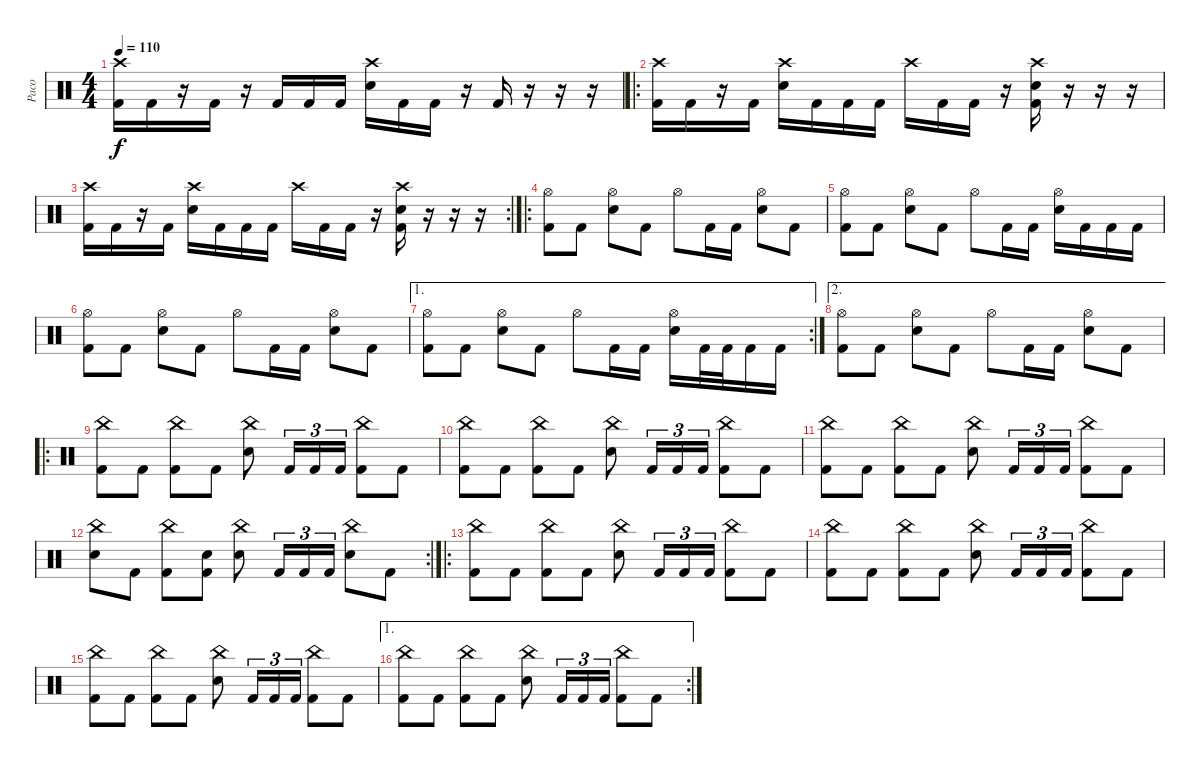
\track ("Paco" "Paco") {instrument percussion}
\staff {score}
\articulation defaults
\ts (4 4)
\tempo 110
\clef neutral
\ks c
("Crash high (hit)" "Kick (hit) 2").16{dy f} "Kick (hit) 2".16 r.16 "Kick (hit) 2".16 r.16 "Kick (hit) 2".16 "Kick (hit) 2".16 "Kick (hit) 2".16 ("Crash high (hit)" "Electric Snare (hit)").16 "Kick (hit) 2".16 "Kick (hit) 2".16 r.16 "Kick (hit) 2".16 r.16 r.16 r.16 |
\ro
("Crash high (hit)" "Kick (hit) 2").16 "Kick (hit) 2".16 r.16 "Kick (hit) 2".16 ("Crash high (hit)" "Electric Snare (hit)").16 "Kick (hit) 2".16 "Kick (hit) 2".16 "Kick (hit) 2".16 "Crash high (hit)".16 "Kick (hit) 2".16 "Kick (hit) 2".16 r.16 ("Crash high (hit)" "Electric Snare (hit)" "Kick (hit) 2").16 r.16 r.16 r.16 |
\rc 2
("Crash high (hit)" "Kick (hit) 2").16 "Kick (hit) 2".16 r.16 "Kick (hit) 2".16 ("Crash high (hit)" "Electric Snare (hit)").16 "Kick (hit) 2".16 "Kick (hit) 2".16 "Kick (hit) 2".16 "Crash high (hit)".16 "Kick (hit) 2".16 "Kick (hit) 2".16 r.16 ("Crash high (hit)" "Electric Snare (hit)" "Kick (hit) 2").16 r.16 r.16 r.16 |
\ro
("Hi-Hat (open)" "Kick (hit) 2").8 "Kick (hit) 2".8 ("Hi-Hat (open)" "Electric Snare (hit)").8 "Kick (hit) 2".8 "Hi-Hat (open)".8 "Kick (hit) 2".16 "Kick (hit) 2".16 ("Hi-Hat (open)" "Electric Snare (hit)").8 "Kick (hit) 2".8 |
("Hi-Hat (open)" "Kick (hit) 2").8 "Kick (hit) 2".8 ("Hi-Hat (open)" "Electric Snare (hit)").8 "Kick (hit) 2".8 "Hi-Hat (open)".8 "Kick (hit) 2".16 "Kick (hit) 2".16 ("Hi-Hat (open)" "Electric Snare (hit)").16 "Kick (hit) 2".16 "Kick (hit) 2".16 "Kick (hit) 2".16 |
("Hi-Hat (open)" "Kick (hit) 2").8 "Kick (hit) 2".8 ("Hi-Hat (open)" "Electric Snare (hit)").8 "Kick (hit) 2".8 "Hi-Hat (open)".8 "Kick (hit) 2".16 "Kick (hit) 2".16 ("Hi-Hat (open)" "Electric Snare (hit)").8 "Kick (hit) 2".8 |
\ae 1
\rc 2
("Hi-Hat (open)" "Kick (hit) 2").8 "Kick (hit) 2".8 ("Hi-Hat (open)" "Electric Snare (hit)").8 "Kick (hit) 2".8 "Hi-Hat (open)".8 "Kick (hit) 2".16 "Kick (hit) 2".16 ("Hi-Hat (open)" "Electric Snare (hit)").16 "Kick (hit) 2".32 "Kick (hit) 2".32 "Kick (hit) 2".16 "Kick (hit) 2".16 |
\ae 2
("Hi-Hat (open)" "Kick (hit) 2").8 "Kick (hit) 2".8 ("Hi-Hat (open)" "Electric Snare (hit)").8 "Kick (hit) 2".8 "Hi-Hat (open)".8 "Kick (hit) 2".16 "Kick (hit) 2".16 ("Hi-Hat (open)" "Electric Snare (hit)").8 "Kick (hit) 2".8 |
\ro
("China (hit)" "Kick (hit) 2").8 "Kick (hit) 2".8 ("China (hit)" "Kick (hit) 2").8 "Kick (hit) 2".8 ("China (hit)" "Electric Snare (hit)").8 "Kick (hit) 2".16{tu (3 2)} "Kick (hit) 2".16{tu (3 2)} "Kick (hit) 2".16{tu (3 2)} ("China (hit)" "Kick (hit) 2").8 "Kick (hit) 2".8 |
("China (hit)" "Kick (hit) 2").8 "Kick (hit) 2".8 ("China (hit)" "Kick (hit) 2").8 "Kick (hit) 2".8 ("China (hit)" "Electric Snare (hit)").8 "Kick (hit) 2".16{tu (3 2)} "Kick (hit) 2".16{tu (3 2)} "Kick (hit) 2".16{tu (3 2)} ("China (hit)" "Kick (hit) 2").8 "Kick (hit) 2".8 |
("China (hit)" "Kick (hit) 2").8 "Kick (hit) 2".8 ("China (hit)" "Kick (hit) 2").8 "Kick (hit) 2".8 ("China (hit)" "Electric Snare (hit)").8 "Kick (hit) 2".16{tu (3 2)} "Kick (hit) 2".16{tu (3 2)} "Kick (hit) 2".16{tu (3 2)} ("China (hit)" "Kick (hit) 2").8 "Kick (hit) 2".8 |
\rc 2
("China (hit)" "Electric Snare (hit)").8 "Kick (hit) 2".8 ("China (hit)" "Kick (hit) 2").8 ("Kick (hit) 2" "Electric Snare (hit)").8 ("China (hit)" "Electric Snare (hit)").8 "Kick (hit) 2".16{tu (3 2)} "Kick (hit) 2".16{tu (3 2)} "Kick (hit) 2".16{tu (3 2)} ("China (hit)" "Electric Snare (hit)").8 "Kick (hit) 2".8 |
\ro
("China (hit)" "Kick (hit) 2").8 "Kick (hit) 2".8 ("China (hit)" "Kick (hit) 2").8 "Kick (hit) 2".8 ("China (hit)" "Electric Snare (hit)").8 "Kick (hit) 2".16{tu (3 2)} "Kick (hit) 2".16{tu (3 2)} "Kick (hit) 2".16{tu (3 2)} ("China (hit)" "Kick (hit) 2").8 "Kick (hit) 2".8 |
("China (hit)" "Kick (hit) 2").8 "Kick (hit) 2".8 ("China (hit)" "Kick (hit) 2").8 "Kick (hit) 2".8 ("China (hit)" "Electric Snare (hit)").8 "Kick (hit) 2".16{tu (3 2)} "Kick (hit) 2".16{tu (3 2)} "Kick (hit) 2".16{tu (3 2)} ("China (hit)" "Kick (hit) 2").8 "Kick (hit) 2".8 |
("China (hit)" "Kick (hit) 2").8 "Kick (hit) 2".8 ("China (hit)" "Kick (hit) 2").8 "Kick (hit) 2".8 ("China (hit)" "Electric Snare (hit)").8 "Kick (hit) 2".16{tu (3 2)} "Kick (hit) 2".16{tu (3 2)} "Kick (hit) 2".16{tu (3 2)} ("China (hit)" "Kick (hit) 2").8 "Kick (hit) 2".8 |
\ae 1
\rc 2
("China (hit)" "Kick (hit) 2").8 "Kick (hit) 2".8 ("China (hit)" "Kick (hit) 2").8 "Kick (hit) 2".8 ("China (hit)" "Electric Snare (hit)").8 "Kick (hit) 2".16{tu (3 2)} "Kick (hit) 2".16{tu (3 2)} "Kick (hit) 2".16{tu (3 2)} ("China (hit)" "Kick (hit) 2").8 "Kick (hit) 2".8
